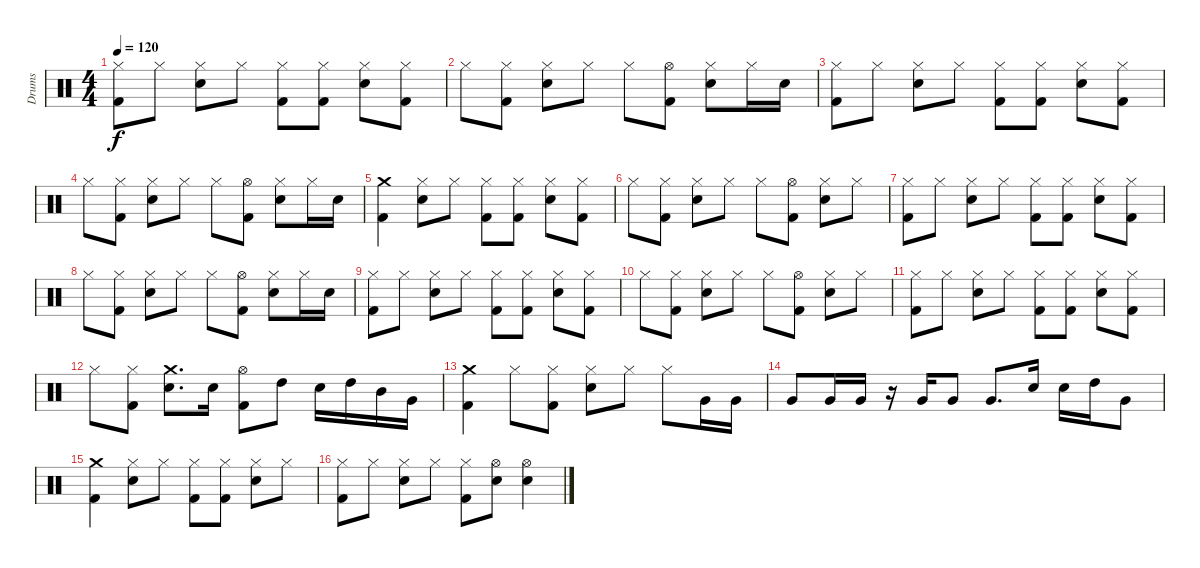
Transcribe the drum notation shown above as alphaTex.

\track ("Drums" "Drums") {instrument percussion}
\staff {score}
\articulation defaults
\ts (4 4)
\tempo 120
\clef neutral
\ks c
("Hi-Hat (closed)" "Kick (hit) 2").8{dy f} "Hi-Hat (closed)".8 ("Hi-Hat (closed)" "Snare (hit) 2").8 "Hi-Hat (closed)".8 ("Hi-Hat (closed)" "Kick (hit) 2").8 ("Hi-Hat (closed)" "Kick (hit) 2").8 ("Hi-Hat (closed)" "Snare (hit) 2").8 ("Hi-Hat (closed)" "Kick (hit) 2").8 |
"Hi-Hat (closed)".8 ("Hi-Hat (closed)" "Kick (hit) 2").8 ("Hi-Hat (closed)" "Snare (hit) 2").8 "Hi-Hat (closed)".8 "Hi-Hat (closed)".8 ("Hi-Hat (open)" "Kick (hit) 2").8 ("Hi-Hat (closed)" "Snare (hit) 2").8 "Hi-Hat (closed)".16 "Snare (hit) 2".16 |
("Hi-Hat (closed)" "Kick (hit) 2").8 "Hi-Hat (closed)".8 ("Hi-Hat (closed)" "Snare (hit) 2").8 "Hi-Hat (closed)".8 ("Hi-Hat (closed)" "Kick (hit) 2").8 ("Hi-Hat (closed)" "Kick (hit) 2").8 ("Hi-Hat (closed)" "Snare (hit) 2").8 ("Hi-Hat (closed)" "Kick (hit) 2").8 |
"Hi-Hat (closed)".8 ("Hi-Hat (closed)" "Kick (hit) 2").8 ("Hi-Hat (closed)" "Snare (hit) 2").8 "Hi-Hat (closed)".8 "Hi-Hat (closed)".8 ("Hi-Hat (open)" "Kick (hit) 2").8 ("Hi-Hat (closed)" "Snare (hit) 2").8 "Hi-Hat (closed)".16 "Snare (hit) 2".16 |
("Crash medium (hit)" "Kick (hit) 2").4 ("Hi-Hat (closed)" "Snare (hit) 2").8 "Hi-Hat (closed)".8 ("Hi-Hat (closed)" "Kick (hit) 2").8 ("Hi-Hat (closed)" "Kick (hit) 2").8 ("Hi-Hat (closed)" "Snare (hit) 2").8 ("Hi-Hat (closed)" "Kick (hit) 2").8 |
"Hi-Hat (closed)".8 ("Hi-Hat (closed)" "Kick (hit) 2").8 ("Hi-Hat (closed)" "Snare (hit) 2").8 "Hi-Hat (closed)".8 "Hi-Hat (closed)".8 ("Hi-Hat (open)" "Kick (hit) 2").8 ("Hi-Hat (closed)" "Snare (hit) 2").8 "Hi-Hat (closed)".8 |
("Hi-Hat (closed)" "Kick (hit) 2").8 "Hi-Hat (closed)".8 ("Hi-Hat (closed)" "Snare (hit) 2").8 "Hi-Hat (closed)".8 ("Hi-Hat (closed)" "Kick (hit) 2").8 ("Hi-Hat (closed)" "Kick (hit) 2").8 ("Hi-Hat (closed)" "Snare (hit) 2").8 ("Hi-Hat (closed)" "Kick (hit) 2").8 |
"Hi-Hat (closed)".8 ("Hi-Hat (closed)" "Kick (hit) 2").8 ("Hi-Hat (closed)" "Snare (hit) 2").8 "Hi-Hat (closed)".8 "Hi-Hat (closed)".8 ("Hi-Hat (open)" "Kick (hit) 2").8 ("Hi-Hat (closed)" "Snare (hit) 2").8 "Hi-Hat (closed)".16 "Snare (hit) 2".16 |
("Hi-Hat (closed)" "Kick (hit) 2").8 "Hi-Hat (closed)".8 ("Hi-Hat (closed)" "Snare (hit) 2").8 "Hi-Hat (closed)".8 ("Hi-Hat (closed)" "Kick (hit) 2").8 ("Hi-Hat (closed)" "Kick (hit) 2").8 ("Hi-Hat (closed)" "Snare (hit) 2").8 ("Hi-Hat (closed)" "Kick (hit) 2").8 |
"Hi-Hat (closed)".8 ("Hi-Hat (closed)" "Kick (hit) 2").8 ("Hi-Hat (closed)" "Snare (hit) 2").8 "Hi-Hat (closed)".8 "Hi-Hat (closed)".8 ("Hi-Hat (open)" "Kick (hit) 2").8 ("Hi-Hat (closed)" "Snare (hit) 2").8 "Hi-Hat (closed)".8 |
("Hi-Hat (closed)" "Kick (hit) 2").8 "Hi-Hat (closed)".8 ("Hi-Hat (closed)" "Snare (hit) 2").8 "Hi-Hat (closed)".8 ("Hi-Hat (closed)" "Kick (hit) 2").8 ("Hi-Hat (closed)" "Kick (hit) 2").8 ("Hi-Hat (closed)" "Snare (hit) 2").8 ("Hi-Hat (closed)" "Kick (hit) 2").8 |
"Hi-Hat (closed)".8 ("Hi-Hat (closed)" "Kick (hit) 2").8 ("Crash medium (hit)" "Snare (hit) 2").8{d} "Snare (hit) 2".16 ("Hi-Hat (open)" "Kick (hit) 2").8 "High Tom (hit)".8 "Snare (hit) 2".16 "High Tom (hit)".16 "Mid Tom (hit)".16 "Very Low Tom (hit)".16 |
("Crash medium (hit)" "Kick (hit) 2").4 "Hi-Hat (closed)".8 ("Hi-Hat (closed)" "Kick (hit) 2").8 ("Hi-Hat (closed)" "Snare (hit) 2").8 "Hi-Hat (closed)".8 "Hi-Hat (closed)".8 "Very Low Tom (hit)".16 "Very Low Tom (hit)".16 |
"Very Low Tom (hit)".8 "Very Low Tom (hit)".16 "Very Low Tom (hit)".16 r.16 "Very Low Tom (hit)".16 "Very Low Tom (hit)".8 "Very Low Tom (hit)".8{d} "Snare (hit) 2".16 "Snare (hit) 2".16 "High Tom (hit)".16 "Very Low Tom (hit)".8 |
("Crash medium (hit)" "Kick (hit) 2").4 ("Hi-Hat (closed)" "Snare (hit) 2").8 "Hi-Hat (closed)".8 ("Hi-Hat (closed)" "Kick (hit) 2").8 ("Hi-Hat (closed)" "Kick (hit) 2").8 ("Hi-Hat (closed)" "Snare (hit) 2").8 "Hi-Hat (closed)".8 |
("Hi-Hat (closed)" "Kick (hit) 2").8 "Hi-Hat (closed)".8 ("Hi-Hat (closed)" "Snare (hit) 2").8 "Hi-Hat (closed)".8 ("Hi-Hat (closed)" "Kick (hit) 2").8 ("Hi-Hat (open)" "Snare (hit) 2").8 ("Hi-Hat (open)" "Snare (hit) 2").4
